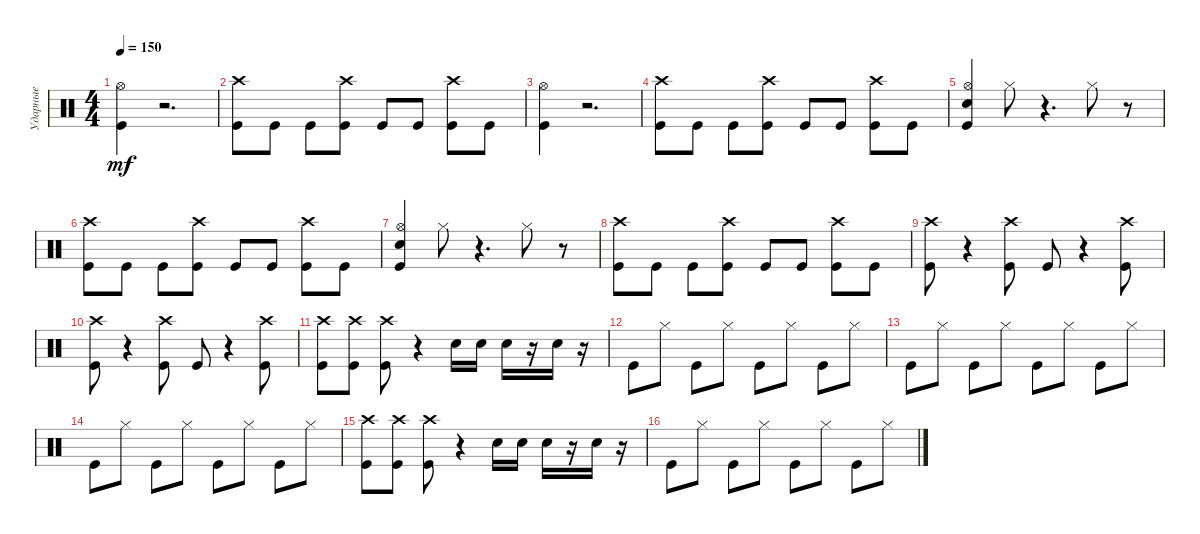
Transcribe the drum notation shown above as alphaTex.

\track ("Ударные" "Ударные") {instrument percussion}
\staff {score}
\articulation defaults
\ts (4 4)
\tempo 150
\clef neutral
\ks c
("Kick (hit)" "Hi-Hat (open)").4{dy mf} r.2{d} |
("Kick (hit)" "Crash high (hit)").8 "Kick (hit)".8 "Kick (hit)".8 ("Kick (hit)" "Crash high (hit)").8 "Kick (hit)".8 "Kick (hit)".8 ("Kick (hit)" "Crash high (hit)").8 "Kick (hit)".8 |
("Kick (hit)" "Hi-Hat (open)").4 r.2{d} |
("Kick (hit)" "Crash high (hit)").8 "Kick (hit)".8 "Kick (hit)".8 ("Kick (hit)" "Crash high (hit)").8 "Kick (hit)".8 "Kick (hit)".8 ("Kick (hit)" "Crash high (hit)").8 "Kick (hit)".8 |
("Kick (hit)" "Electric Snare (hit)" "Hi-Hat (open)").4 "Hi-Hat (closed)".8 r.4{d} "Hi-Hat (closed)".8 r.8 |
("Kick (hit)" "Crash high (hit)").8 "Kick (hit)".8 "Kick (hit)".8 ("Kick (hit)" "Crash high (hit)").8 "Kick (hit)".8 "Kick (hit)".8 ("Kick (hit)" "Crash high (hit)").8 "Kick (hit)".8 |
("Kick (hit)" "Electric Snare (hit)" "Hi-Hat (open)").4 "Hi-Hat (closed)".8 r.4{d} "Hi-Hat (closed)".8 r.8 |
("Kick (hit)" "Crash high (hit)").8 "Kick (hit)".8 "Kick (hit)".8 ("Kick (hit)" "Crash high (hit)").8 "Kick (hit)".8 "Kick (hit)".8 ("Kick (hit)" "Crash high (hit)").8 "Kick (hit)".8 |
("Kick (hit)" "Crash high (hit)").8 r.4 ("Kick (hit)" "Crash high (hit)").8 "Kick (hit)".8 r.4 ("Kick (hit)" "Crash high (hit)").8 |
("Kick (hit)" "Crash high (hit)").8 r.4 ("Kick (hit)" "Crash high (hit)").8 "Kick (hit)".8 r.4 ("Kick (hit)" "Crash high (hit)").8 |
("Kick (hit)" "Crash high (hit)").8 ("Kick (hit)" "Crash high (hit)").8 ("Kick (hit)" "Crash high (hit)").8 r.4 "Electric Snare (hit)".16 "Electric Snare (hit)".16 "Electric Snare (hit)".16 r.16 "Electric Snare (hit)".16 r.16 |
"Kick (hit)".8 "Hi-Hat (closed)".8 "Kick (hit)".8 "Hi-Hat (closed)".8 "Kick (hit)".8 "Hi-Hat (closed)".8 "Kick (hit)".8 "Hi-Hat (closed)".8 |
"Kick (hit)".8 "Hi-Hat (closed)".8 "Kick (hit)".8 "Hi-Hat (closed)".8 "Kick (hit)".8 "Hi-Hat (closed)".8 "Kick (hit)".8 "Hi-Hat (closed)".8 |
"Kick (hit)".8 "Hi-Hat (closed)".8 "Kick (hit)".8 "Hi-Hat (closed)".8 "Kick (hit)".8 "Hi-Hat (closed)".8 "Kick (hit)".8 "Hi-Hat (closed)".8 |
("Kick (hit)" "Crash high (hit)").8 ("Kick (hit)" "Crash high (hit)").8 ("Kick (hit)" "Crash high (hit)").8 r.4 "Electric Snare (hit)".16 "Electric Snare (hit)".16 "Electric Snare (hit)".16 r.16 "Electric Snare (hit)".16 r.16 |
"Kick (hit)".8 "Hi-Hat (closed)".8 "Kick (hit)".8 "Hi-Hat (closed)".8 "Kick (hit)".8 "Hi-Hat (closed)".8 "Kick (hit)".8 "Hi-Hat (closed)".8
